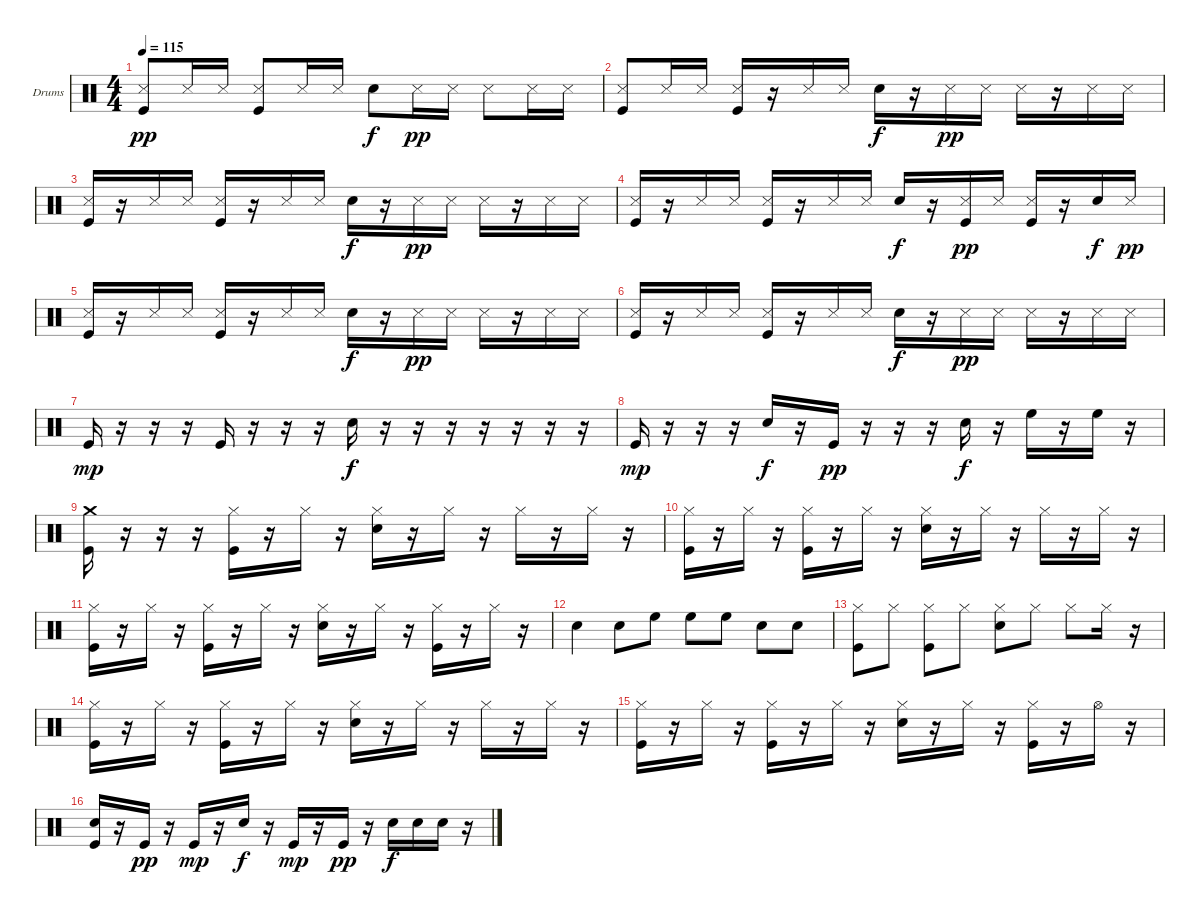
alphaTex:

\bracketExtendMode groupsimilarinstruments
\firstSystemTrackNameOrientation horizontal
\otherSystemsTrackNameOrientation horizontal
\track ("Drumkit" "Drums") {instrument percussion}
\staff {score}
\articulation defaults
\ts (4 4)
\tempo 115
\clef neutral
\ks c
("Snare (side stick) 3" "Kick (hit)").8{dy pp} "Snare (side stick) 3".16 "Snare (side stick) 3".16 ("Snare (side stick) 3" "Kick (hit)").8 "Snare (side stick) 3".16 "Snare (side stick) 3".16 "Snare (hit) 2".8{dy f} "Snare (side stick) 3".16{dy pp} "Snare (side stick) 3".16 "Snare (side stick) 3".8 "Snare (side stick) 3".16 "Snare (side stick) 3".16 |
("Snare (side stick) 3" "Kick (hit)").8 "Snare (side stick) 3".16 "Snare (side stick) 3".16 ("Snare (side stick) 3" "Kick (hit)").16 r.16 "Snare (side stick) 3".16 "Snare (side stick) 3".16 "Snare (hit) 2".16{dy f} r.16 "Snare (side stick) 3".16{dy pp} "Snare (side stick) 3".16 "Snare (side stick) 3".16 r.16 "Snare (side stick) 3".16 "Snare (side stick) 3".16 |
("Snare (side stick) 3" "Kick (hit)").16 r.16 "Snare (side stick) 3".16 "Snare (side stick) 3".16 ("Snare (side stick) 3" "Kick (hit)").16 r.16 "Snare (side stick) 3".16 "Snare (side stick) 3".16 "Snare (hit) 2".16{dy f} r.16 "Snare (side stick) 3".16{dy pp} "Snare (side stick) 3".16 "Snare (side stick) 3".16 r.16 "Snare (side stick) 3".16 "Snare (side stick) 3".16 |
("Snare (side stick) 3" "Kick (hit)").16 r.16 "Snare (side stick) 3".16 "Snare (side stick) 3".16 ("Snare (side stick) 3" "Kick (hit)").16 r.16 "Snare (side stick) 3".16 "Snare (side stick) 3".16 "Snare (hit) 2".16{dy f} r.16 ("Snare (side stick) 3" "Kick (hit)").16{dy pp} "Snare (side stick) 3".16 ("Snare (side stick) 3" "Kick (hit)").16 r.16 "Snare (hit) 2".16{dy f} "Snare (side stick) 3".16{dy pp} |
("Snare (side stick) 3" "Kick (hit)").16 r.16 "Snare (side stick) 3".16 "Snare (side stick) 3".16 ("Snare (side stick) 3" "Kick (hit)").16 r.16 "Snare (side stick) 3".16 "Snare (side stick) 3".16 "Snare (hit) 2".16{dy f} r.16 "Snare (side stick) 3".16{dy pp} "Snare (side stick) 3".16 "Snare (side stick) 3".16 r.16 "Snare (side stick) 3".16 "Snare (side stick) 3".16 |
("Snare (side stick) 3" "Kick (hit)").16 r.16 "Snare (side stick) 3".16 "Snare (side stick) 3".16 ("Snare (side stick) 3" "Kick (hit)").16 r.16 "Snare (side stick) 3".16 "Snare (side stick) 3".16 "Snare (hit) 2".16{dy f} r.16 "Snare (side stick) 3".16{dy pp} "Snare (side stick) 3".16 "Snare (side stick) 3".16 r.16 "Snare (side stick) 3".16 "Snare (side stick) 3".16 |
"Kick (hit)".16{dy mp} r.16 r.16 r.16 "Kick (hit)".16 r.16 r.16 r.16 "Snare (hit) 2".16{dy f} r.16 r.16 r.16 r.16 r.16 r.16 r.16 |
"Kick (hit)".16{dy mp} r.16 r.16 r.16 "Snare (hit) 2".16{dy f} r.16 "Kick (hit)".16{dy pp} r.16 r.16 r.16 "Snare (hit) 2".16{dy f} r.16 "High Floor Tom (hit)".16 r.16 "High Floor Tom (hit)".16 r.16 |
("Crash medium (hit)" "Kick (hit)").16 r.16 r.16 r.16 ("Hi-Hat (closed)" "Kick (hit)").16 r.16 "Hi-Hat (closed)".16 r.16 ("Hi-Hat (closed)" "Snare (hit) 2").16 r.16 "Hi-Hat (closed)".16 r.16 "Hi-Hat (closed)".16 r.16 "Hi-Hat (closed)".16 r.16 |
("Hi-Hat (closed)" "Kick (hit)").16 r.16 "Hi-Hat (closed)".16 r.16 ("Hi-Hat (closed)" "Kick (hit)").16 r.16 "Hi-Hat (closed)".16 r.16 ("Hi-Hat (closed)" "Snare (hit) 2").16 r.16 "Hi-Hat (closed)".16 r.16 "Hi-Hat (closed)".16 r.16 "Hi-Hat (closed)".16 r.16 |
("Hi-Hat (closed)" "Kick (hit)").16 r.16 "Hi-Hat (closed)".16 r.16 ("Hi-Hat (closed)" "Kick (hit)").16 r.16 "Hi-Hat (closed)".16 r.16 ("Hi-Hat (closed)" "Snare (hit) 2").16 r.16 "Hi-Hat (closed)".16 r.16 ("Hi-Hat (closed)" "Kick (hit)").16 r.16 "Hi-Hat (closed)".16 r.16 |
"Snare (hit) 2".4 "Snare (hit) 2".8 "High Floor Tom (hit)".8 "High Floor Tom (hit)".8 "High Floor Tom (hit)".8 "Snare (hit) 2".8 "Snare (hit) 2".8 |
("Hi-Hat (closed)" "Kick (hit)").8 "Hi-Hat (closed)".8 ("Hi-Hat (closed)" "Kick (hit)").8 "Hi-Hat (closed)".8 ("Hi-Hat (closed)" "Snare (hit) 2").8 "Hi-Hat (closed)".8 "Hi-Hat (closed)".8 "Hi-Hat (closed)".16 r.16 |
("Hi-Hat (closed)" "Kick (hit)").16 r.16 "Hi-Hat (closed)".16 r.16 ("Hi-Hat (closed)" "Kick (hit)").16 r.16 "Hi-Hat (closed)".16 r.16 ("Hi-Hat (closed)" "Snare (hit) 2").16 r.16 "Hi-Hat (closed)".16 r.16 "Hi-Hat (closed)".16 r.16 "Hi-Hat (closed)".16 r.16 |
("Hi-Hat (closed)" "Kick (hit)").16 r.16 "Hi-Hat (closed)".16 r.16 ("Hi-Hat (closed)" "Kick (hit)").16 r.16 "Hi-Hat (closed)".16 r.16 ("Hi-Hat (closed)" "Snare (hit) 2").16 r.16 "Hi-Hat (closed)".16 r.16 ("Hi-Hat (closed)" "Kick (hit)").16 r.16 "Hi-Hat (open)".16 r.16 |
("Snare (hit) 2" "Kick (hit)").16 r.16 "Kick (hit)".16{dy pp} r.16 "Kick (hit)".16{dy mp} r.16 "Snare (hit) 2".16{dy f} r.16 "Kick (hit)".16{dy mp} r.16 "Kick (hit)".16{dy pp} r.16 "Snare (hit) 2".16{dy f} "Snare (hit) 2".16 "Snare (hit) 2".16 r.16
